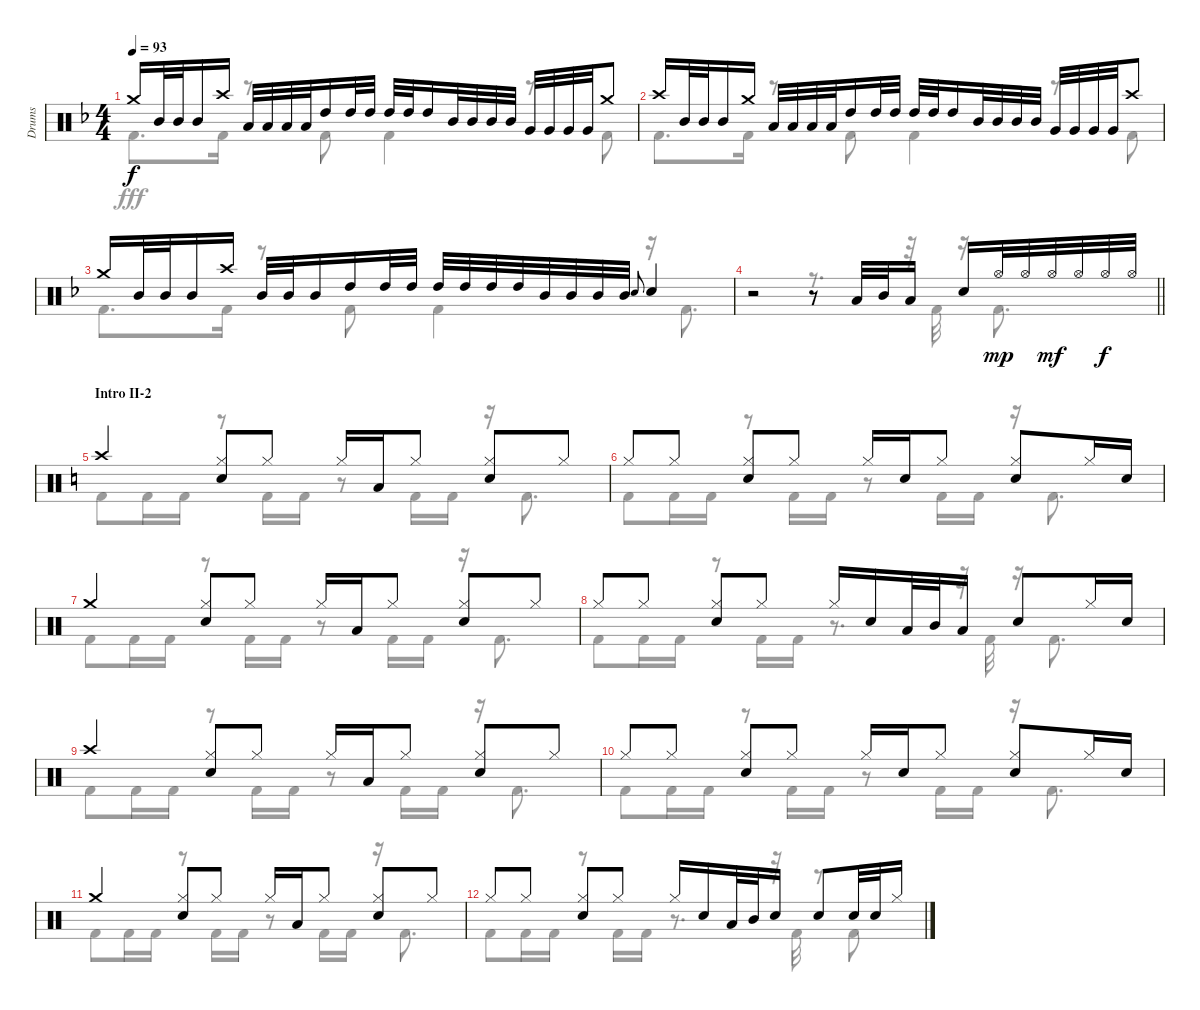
\track ("Drums" "Drums") {instrument percussion}
\staff {score}
\articulation defaults
\voice
\ts (4 4)
\tempo 93
\clef neutral
\ks f "Crash medium (hit)".16{dy f} "Mid Tom (hit)".32 "Mid Tom (hit)".32 "Mid Tom (hit)".16 "Crash high (hit)".16 "Low Tom (hit)".32 "Low Tom (hit)".32 "Low Tom (hit)".32 "Low Tom (hit)".32 "High Tom (hit)".16 "High Tom (hit)".32 "High Tom (hit)".32 "High Tom (hit)".32 "High Tom (hit)".32 "High Tom (hit)".16 "Mid Tom (hit)".32 "Mid Tom (hit)".32 "Mid Tom (hit)".32 "Mid Tom (hit)".32 "Very Low Tom (hit)".32 "Very Low Tom (hit)".32 "Very Low Tom (hit)".32 "Very Low Tom (hit)".32 "Crash medium (hit)".8
|
"Crash high (hit)".16 "Mid Tom (hit)".32 "Mid Tom (hit)".32 "Mid Tom (hit)".16 "Crash medium (hit)".16 "Low Tom (hit)".32 "Low Tom (hit)".32 "Low Tom (hit)".32 "Low Tom (hit)".32 "High Tom (hit)".16 "High Tom (hit)".32 "High Tom (hit)".32 "High Tom (hit)".32 "High Tom (hit)".32 "High Tom (hit)".16 "Mid Tom (hit)".32 "Mid Tom (hit)".32 "Mid Tom (hit)".32 "Mid Tom (hit)".32 "Very Low Tom (hit)".32 "Very Low Tom (hit)".32 "Very Low Tom (hit)".32 "Very Low Tom (hit)".32 "Crash high (hit)".8 |
"Crash medium (hit)".16 "Mid Tom (hit)".32 "Mid Tom (hit)".32 "Mid Tom (hit)".16 "Crash high (hit)".16 "Mid Tom (hit)".32 "Mid Tom (hit)".32 "Mid Tom (hit)".16 "High Tom (hit)".16 "High Tom (hit)".32 "High Tom (hit)".32 "High Tom (hit)".32 "High Tom (hit)".32 "High Tom (hit)".32 "High Tom (hit)".32 "Mid Tom (hit)".32 "Mid Tom (hit)".32 "Mid Tom (hit)".32 "Mid Tom (hit)".32 "Snare (hit) 2".8{gr onbeat} "Snare (hit) 2".4 |
\barLineRight lightlight
r.2 r.8 "Low Tom (hit)".32 "Mid Tom (hit)".32 "Low Tom (hit)".16 "Snare (hit) 2".16 "Hi-Hat (open)".32{dy mp} "Hi-Hat (open)".32 "Hi-Hat (open)".32{dy mf} "Hi-Hat (open)".32 "Hi-Hat (open)".32{dy f} "Hi-Hat (open)".32 |
\section ("" "Intro II-2")
\ks c "Crash high (hit)".4
("Hi-Hat (closed)" "Snare (hit) 2").8 "Hi-Hat (closed)".8 "Hi-Hat (closed)".16 "Low Tom (hit)".16 "Hi-Hat (closed)".8 ("Hi-Hat (closed)" "Snare (hit) 2").8 "Hi-Hat (closed)".8 |
"Hi-Hat (closed)".8 "Hi-Hat (closed)".8 ("Hi-Hat (closed)" "Snare (hit) 2").8 "Hi-Hat (closed)".8 "Hi-Hat (closed)".16 "Snare (hit) 2".16 "Hi-Hat (closed)".8 ("Hi-Hat (closed)" "Snare (hit) 2").8 "Hi-Hat (closed)".16 "Snare (hit) 2".16 |
"Crash medium (hit)".4 ("Hi-Hat (closed)" "Snare (hit) 2").8 "Hi-Hat (closed)".8 "Hi-Hat (closed)".16 "Low Tom (hit)".16 "Hi-Hat (closed)".8 ("Hi-Hat (closed)" "Snare (hit) 2").8 "Hi-Hat (closed)".8 |
"Hi-Hat (closed)".8 "Hi-Hat (closed)".8 ("Hi-Hat (closed)" "Snare (hit) 2").8 "Hi-Hat (closed)".8 "Hi-Hat (closed)".16 "Snare (hit) 2".16 "Low Tom (hit)".32 "Mid Tom (hit)".32 "Low Tom (hit)".16 "Snare (hit) 2".8 "Hi-Hat (closed)".16 "Snare (hit) 2".16 |
"Crash high (hit)".4 ("Hi-Hat (closed)" "Snare (hit) 2").8 "Hi-Hat (closed)".8 "Hi-Hat (closed)".16 "Low Tom (hit)".16 "Hi-Hat (closed)".8 ("Hi-Hat (closed)" "Snare (hit) 2").8 "Hi-Hat (closed)".8 |
"Hi-Hat (closed)".8 "Hi-Hat (closed)".8 ("Hi-Hat (closed)" "Snare (hit) 2").8 "Hi-Hat (closed)".8 "Hi-Hat (closed)".16 "Snare (hit) 2".16 "Hi-Hat (closed)".8 ("Hi-Hat (closed)" "Snare (hit) 2").8 "Hi-Hat (closed)".16 "Snare (hit) 2".16 |
"Crash medium (hit)".4 ("Hi-Hat (closed)" "Snare (hit) 2").8 "Hi-Hat (closed)".8 "Hi-Hat (closed)".16 "Low Tom (hit)".16 "Hi-Hat (closed)".8 ("Hi-Hat (closed)" "Snare (hit) 2").8 "Hi-Hat (closed)".8 |
"Hi-Hat (closed)".8 "Hi-Hat (closed)".8 ("Hi-Hat (closed)" "Snare (hit) 2").8 "Hi-Hat (closed)".8 "Hi-Hat (closed)".16 "Snare (hit) 2".16 "Low Tom (hit)".32 "Mid Tom (hit)".32 "Snare (hit) 2".16 "Snare (hit) 2".8 "Snare (hit) 2".32 "Snare (hit) 2".32 "Hi-Hat (closed)".16
\voice
\clef neutral
\ottava regular
\simile none
\ks f "Kick (hit) 2".8{d dy fff} "Kick (hit) 2".16
r.8 "Kick (hit) 2".8 "Kick (hit) 2".4 r.8 "Kick (hit) 2".8 |
"Kick (hit) 2".8{d} "Kick (hit) 2".16 r.8 "Kick (hit) 2".8 "Kick (hit) 2".4 r.8 "Kick (hit) 2".8 |
"Kick (hit) 2".8{d} "Kick (hit) 2".16 r.8 "Kick (hit) 2".8 "Kick (hit) 2".4 r.16 "Kick (hit) 2".8{d} |
\barLineRight lightlight
r.2 r.8{d} r.32 "Kick (hit) 2".32 r.16 "Kick (hit) 2".8{d} |
\ks c "Kick (hit) 2".8 "Kick (hit) 2".16 "Kick (hit) 2".16
r.8 "Kick (hit) 2".16 "Kick (hit) 2".16 r.8 "Kick (hit) 2".16 "Kick (hit) 2".16 r.16 "Kick (hit) 2".8{d} |
"Kick (hit) 2".8 "Kick (hit) 2".16 "Kick (hit) 2".16 r.8 "Kick (hit) 2".16 "Kick (hit) 2".16 r.8 "Kick (hit) 2".16 "Kick (hit) 2".16 r.16 "Kick (hit) 2".8{d} |
"Kick (hit) 2".8 "Kick (hit) 2".16 "Kick (hit) 2".16 r.8 "Kick (hit) 2".16 "Kick (hit) 2".16 r.8 "Kick (hit) 2".16 "Kick (hit) 2".16 r.16 "Kick (hit) 2".8{d} |
"Kick (hit) 2".8 "Kick (hit) 2".16 "Kick (hit) 2".16 r.8 "Kick (hit) 2".16 "Kick (hit) 2".16 r.8{d} r.32 "Kick (hit) 2".32 r.16 "Kick (hit) 2".8{d} |
"Kick (hit) 2".8 "Kick (hit) 2".16 "Kick (hit) 2".16 r.8 "Kick (hit) 2".16 "Kick (hit) 2".16 r.8 "Kick (hit) 2".16 "Kick (hit) 2".16 r.16 "Kick (hit) 2".8{d} |
"Kick (hit) 2".8 "Kick (hit) 2".16 "Kick (hit) 2".16 r.8 "Kick (hit) 2".16 "Kick (hit) 2".16 r.8 "Kick (hit) 2".16 "Kick (hit) 2".16 r.16 "Kick (hit) 2".8{d} |
"Kick (hit) 2".8 "Kick (hit) 2".16 "Kick (hit) 2".16 r.8 "Kick (hit) 2".16 "Kick (hit) 2".16 r.8 "Kick (hit) 2".16 "Kick (hit) 2".16 r.16 "Kick (hit) 2".8{d} |
"Kick (hit) 2".8 "Kick (hit) 2".16 "Kick (hit) 2".16 r.8 "Kick (hit) 2".16 "Kick (hit) 2".16 r.8{d} r.32 "Kick (hit) 2".32 r.8 "Kick (hit) 2".8
